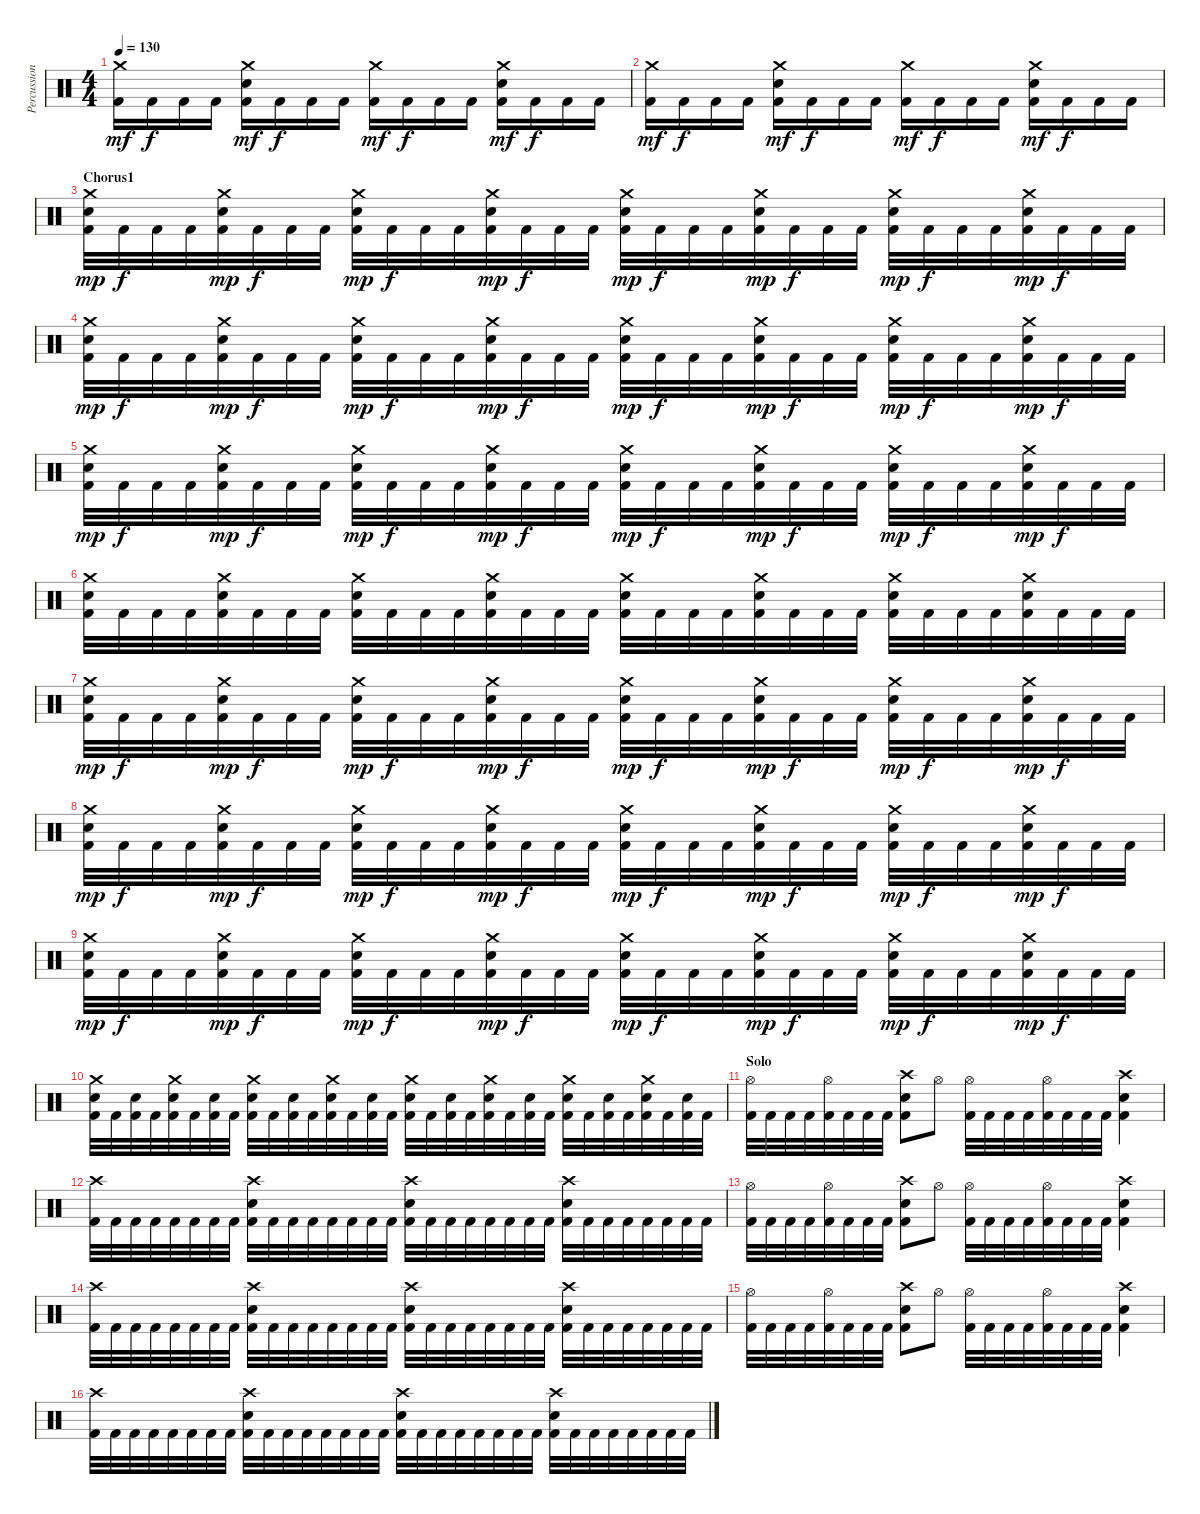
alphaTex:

\track ("Percussion" "Percussion") {instrument percussion}
\staff {score}
\articulation defaults
\ts (4 4)
\tempo 130
\clef neutral
\ks c
("Crash medium (hit)" "Kick (hit) 2").16{dy mf} "Kick (hit) 2".16{dy f} "Kick (hit) 2".16 "Kick (hit) 2".16 ("Crash medium (hit)" "Electric Snare (hit)" "Kick (hit) 2").16{dy mf} "Kick (hit) 2".16{dy f} "Kick (hit) 2".16 "Kick (hit) 2".16 ("Crash medium (hit)" "Kick (hit) 2").16{dy mf} "Kick (hit) 2".16{dy f} "Kick (hit) 2".16 "Kick (hit) 2".16 ("Crash medium (hit)" "Electric Snare (hit)" "Kick (hit) 2").16{dy mf} "Kick (hit) 2".16{dy f} "Kick (hit) 2".16 "Kick (hit) 2".16 |
("Crash medium (hit)" "Kick (hit) 2").16{dy mf} "Kick (hit) 2".16{dy f} "Kick (hit) 2".16 "Kick (hit) 2".16 ("Crash medium (hit)" "Electric Snare (hit)" "Kick (hit) 2").16{dy mf} "Kick (hit) 2".16{dy f} "Kick (hit) 2".16 "Kick (hit) 2".16 ("Crash medium (hit)" "Kick (hit) 2").16{dy mf} "Kick (hit) 2".16{dy f} "Kick (hit) 2".16 "Kick (hit) 2".16 ("Crash medium (hit)" "Electric Snare (hit)" "Kick (hit) 2").16{dy mf} "Kick (hit) 2".16{dy f} "Kick (hit) 2".16 "Kick (hit) 2".16 |
\section ("" "Chorus1")
("Crash medium (hit)" "Electric Snare (hit)" "Kick (hit) 2").32{dy mp} "Kick (hit) 2".32{dy f} "Kick (hit) 2".32 "Kick (hit) 2".32 ("Crash medium (hit)" "Electric Snare (hit)" "Kick (hit) 2").32{dy mp} "Kick (hit) 2".32{dy f} "Kick (hit) 2".32 "Kick (hit) 2".32 ("Crash medium (hit)" "Electric Snare (hit)" "Kick (hit) 2").32{dy mp} "Kick (hit) 2".32{dy f} "Kick (hit) 2".32 "Kick (hit) 2".32 ("Crash medium (hit)" "Electric Snare (hit)" "Kick (hit) 2").32{dy mp} "Kick (hit) 2".32{dy f} "Kick (hit) 2".32 "Kick (hit) 2".32 ("Crash medium (hit)" "Electric Snare (hit)" "Kick (hit) 2").32{dy mp} "Kick (hit) 2".32{dy f} "Kick (hit) 2".32 "Kick (hit) 2".32 ("Crash medium (hit)" "Electric Snare (hit)" "Kick (hit) 2").32{dy mp} "Kick (hit) 2".32{dy f} "Kick (hit) 2".32 "Kick (hit) 2".32 ("Crash medium (hit)" "Electric Snare (hit)" "Kick (hit) 2").32{dy mp} "Kick (hit) 2".32{dy f} "Kick (hit) 2".32 "Kick (hit) 2".32 ("Crash medium (hit)" "Electric Snare (hit)" "Kick (hit) 2").32{dy mp} "Kick (hit) 2".32{dy f} "Kick (hit) 2".32 "Kick (hit) 2".32 |
("Crash medium (hit)" "Electric Snare (hit)" "Kick (hit) 2").32{dy mp} "Kick (hit) 2".32{dy f} "Kick (hit) 2".32 "Kick (hit) 2".32 ("Crash medium (hit)" "Electric Snare (hit)" "Kick (hit) 2").32{dy mp} "Kick (hit) 2".32{dy f} "Kick (hit) 2".32 "Kick (hit) 2".32 ("Crash medium (hit)" "Electric Snare (hit)" "Kick (hit) 2").32{dy mp} "Kick (hit) 2".32{dy f} "Kick (hit) 2".32 "Kick (hit) 2".32 ("Crash medium (hit)" "Electric Snare (hit)" "Kick (hit) 2").32{dy mp} "Kick (hit) 2".32{dy f} "Kick (hit) 2".32 "Kick (hit) 2".32 ("Crash medium (hit)" "Electric Snare (hit)" "Kick (hit) 2").32{dy mp} "Kick (hit) 2".32{dy f} "Kick (hit) 2".32 "Kick (hit) 2".32 ("Crash medium (hit)" "Electric Snare (hit)" "Kick (hit) 2").32{dy mp} "Kick (hit) 2".32{dy f} "Kick (hit) 2".32 "Kick (hit) 2".32 ("Crash medium (hit)" "Electric Snare (hit)" "Kick (hit) 2").32{dy mp} "Kick (hit) 2".32{dy f} "Kick (hit) 2".32 "Kick (hit) 2".32 ("Crash medium (hit)" "Electric Snare (hit)" "Kick (hit) 2").32{dy mp} "Kick (hit) 2".32{dy f} "Kick (hit) 2".32 "Kick (hit) 2".32 |
("Crash medium (hit)" "Electric Snare (hit)" "Kick (hit) 2").32{dy mp} "Kick (hit) 2".32{dy f} "Kick (hit) 2".32 "Kick (hit) 2".32 ("Crash medium (hit)" "Electric Snare (hit)" "Kick (hit) 2").32{dy mp} "Kick (hit) 2".32{dy f} "Kick (hit) 2".32 "Kick (hit) 2".32 ("Crash medium (hit)" "Electric Snare (hit)" "Kick (hit) 2").32{dy mp} "Kick (hit) 2".32{dy f} "Kick (hit) 2".32 "Kick (hit) 2".32 ("Crash medium (hit)" "Electric Snare (hit)" "Kick (hit) 2").32{dy mp} "Kick (hit) 2".32{dy f} "Kick (hit) 2".32 "Kick (hit) 2".32 ("Crash medium (hit)" "Electric Snare (hit)" "Kick (hit) 2").32{dy mp} "Kick (hit) 2".32{dy f} "Kick (hit) 2".32 "Kick (hit) 2".32 ("Crash medium (hit)" "Electric Snare (hit)" "Kick (hit) 2").32{dy mp} "Kick (hit) 2".32{dy f} "Kick (hit) 2".32 "Kick (hit) 2".32 ("Crash medium (hit)" "Electric Snare (hit)" "Kick (hit) 2").32{dy mp} "Kick (hit) 2".32{dy f} "Kick (hit) 2".32 "Kick (hit) 2".32 ("Crash medium (hit)" "Electric Snare (hit)" "Kick (hit) 2").32{dy mp} "Kick (hit) 2".32{dy f} "Kick (hit) 2".32 "Kick (hit) 2".32 |
("Crash medium (hit)" "Electric Snare (hit)" "Kick (hit) 2").32 "Kick (hit) 2".32 "Kick (hit) 2".32 "Kick (hit) 2".32 ("Crash medium (hit)" "Electric Snare (hit)" "Kick (hit) 2").32 "Kick (hit) 2".32 "Kick (hit) 2".32 "Kick (hit) 2".32 ("Crash medium (hit)" "Electric Snare (hit)" "Kick (hit) 2").32 "Kick (hit) 2".32 "Kick (hit) 2".32 "Kick (hit) 2".32 ("Crash medium (hit)" "Electric Snare (hit)" "Kick (hit) 2").32 "Kick (hit) 2".32 "Kick (hit) 2".32 "Kick (hit) 2".32 ("Crash medium (hit)" "Electric Snare (hit)" "Kick (hit) 2").32 "Kick (hit) 2".32 "Kick (hit) 2".32 "Kick (hit) 2".32 ("Crash medium (hit)" "Electric Snare (hit)" "Kick (hit) 2").32 "Kick (hit) 2".32 "Kick (hit) 2".32 "Kick (hit) 2".32 ("Crash medium (hit)" "Electric Snare (hit)" "Kick (hit) 2").32 "Kick (hit) 2".32 "Kick (hit) 2".32 "Kick (hit) 2".32 ("Crash medium (hit)" "Electric Snare (hit)" "Kick (hit) 2").32 "Kick (hit) 2".32 "Kick (hit) 2".32 "Kick (hit) 2".32 |
("Crash medium (hit)" "Electric Snare (hit)" "Kick (hit) 2").32{dy mp} "Kick (hit) 2".32{dy f} "Kick (hit) 2".32 "Kick (hit) 2".32 ("Crash medium (hit)" "Electric Snare (hit)" "Kick (hit) 2").32{dy mp} "Kick (hit) 2".32{dy f} "Kick (hit) 2".32 "Kick (hit) 2".32 ("Crash medium (hit)" "Electric Snare (hit)" "Kick (hit) 2").32{dy mp} "Kick (hit) 2".32{dy f} "Kick (hit) 2".32 "Kick (hit) 2".32 ("Crash medium (hit)" "Electric Snare (hit)" "Kick (hit) 2").32{dy mp} "Kick (hit) 2".32{dy f} "Kick (hit) 2".32 "Kick (hit) 2".32 ("Crash medium (hit)" "Electric Snare (hit)" "Kick (hit) 2").32{dy mp} "Kick (hit) 2".32{dy f} "Kick (hit) 2".32 "Kick (hit) 2".32 ("Crash medium (hit)" "Electric Snare (hit)" "Kick (hit) 2").32{dy mp} "Kick (hit) 2".32{dy f} "Kick (hit) 2".32 "Kick (hit) 2".32 ("Crash medium (hit)" "Electric Snare (hit)" "Kick (hit) 2").32{dy mp} "Kick (hit) 2".32{dy f} "Kick (hit) 2".32 "Kick (hit) 2".32 ("Crash medium (hit)" "Electric Snare (hit)" "Kick (hit) 2").32{dy mp} "Kick (hit) 2".32{dy f} "Kick (hit) 2".32 "Kick (hit) 2".32 |
("Crash medium (hit)" "Electric Snare (hit)" "Kick (hit) 2").32{dy mp} "Kick (hit) 2".32{dy f} "Kick (hit) 2".32 "Kick (hit) 2".32 ("Crash medium (hit)" "Electric Snare (hit)" "Kick (hit) 2").32{dy mp} "Kick (hit) 2".32{dy f} "Kick (hit) 2".32 "Kick (hit) 2".32 ("Crash medium (hit)" "Electric Snare (hit)" "Kick (hit) 2").32{dy mp} "Kick (hit) 2".32{dy f} "Kick (hit) 2".32 "Kick (hit) 2".32 ("Crash medium (hit)" "Electric Snare (hit)" "Kick (hit) 2").32{dy mp} "Kick (hit) 2".32{dy f} "Kick (hit) 2".32 "Kick (hit) 2".32 ("Crash medium (hit)" "Electric Snare (hit)" "Kick (hit) 2").32{dy mp} "Kick (hit) 2".32{dy f} "Kick (hit) 2".32 "Kick (hit) 2".32 ("Crash medium (hit)" "Electric Snare (hit)" "Kick (hit) 2").32{dy mp} "Kick (hit) 2".32{dy f} "Kick (hit) 2".32 "Kick (hit) 2".32 ("Crash medium (hit)" "Electric Snare (hit)" "Kick (hit) 2").32{dy mp} "Kick (hit) 2".32{dy f} "Kick (hit) 2".32 "Kick (hit) 2".32 ("Crash medium (hit)" "Electric Snare (hit)" "Kick (hit) 2").32{dy mp} "Kick (hit) 2".32{dy f} "Kick (hit) 2".32 "Kick (hit) 2".32 |
("Crash medium (hit)" "Electric Snare (hit)" "Kick (hit) 2").32{dy mp} "Kick (hit) 2".32{dy f} "Kick (hit) 2".32 "Kick (hit) 2".32 ("Crash medium (hit)" "Electric Snare (hit)" "Kick (hit) 2").32{dy mp} "Kick (hit) 2".32{dy f} "Kick (hit) 2".32 "Kick (hit) 2".32 ("Crash medium (hit)" "Electric Snare (hit)" "Kick (hit) 2").32{dy mp} "Kick (hit) 2".32{dy f} "Kick (hit) 2".32 "Kick (hit) 2".32 ("Crash medium (hit)" "Electric Snare (hit)" "Kick (hit) 2").32{dy mp} "Kick (hit) 2".32{dy f} "Kick (hit) 2".32 "Kick (hit) 2".32 ("Crash medium (hit)" "Electric Snare (hit)" "Kick (hit) 2").32{dy mp} "Kick (hit) 2".32{dy f} "Kick (hit) 2".32 "Kick (hit) 2".32 ("Crash medium (hit)" "Electric Snare (hit)" "Kick (hit) 2").32{dy mp} "Kick (hit) 2".32{dy f} "Kick (hit) 2".32 "Kick (hit) 2".32 ("Crash medium (hit)" "Electric Snare (hit)" "Kick (hit) 2").32{dy mp} "Kick (hit) 2".32{dy f} "Kick (hit) 2".32 "Kick (hit) 2".32 ("Crash medium (hit)" "Electric Snare (hit)" "Kick (hit) 2").32{dy mp} "Kick (hit) 2".32{dy f} "Kick (hit) 2".32 "Kick (hit) 2".32 |
("Crash medium (hit)" "Electric Snare (hit)" "Kick (hit) 2").32 "Kick (hit) 2".32 ("Electric Snare (hit)" "Kick (hit) 2").32 "Kick (hit) 2".32 ("Crash medium (hit)" "Electric Snare (hit)" "Kick (hit) 2").32 "Kick (hit) 2".32 ("Electric Snare (hit)" "Kick (hit) 2").32 "Kick (hit) 2".32 ("Crash medium (hit)" "Electric Snare (hit)" "Kick (hit) 2").32 "Kick (hit) 2".32 ("Electric Snare (hit)" "Kick (hit) 2").32 "Kick (hit) 2".32 ("Crash medium (hit)" "Electric Snare (hit)" "Kick (hit) 2").32 "Kick (hit) 2".32 ("Electric Snare (hit)" "Kick (hit) 2").32 "Kick (hit) 2".32 ("Crash medium (hit)" "Electric Snare (hit)" "Kick (hit) 2").32 "Kick (hit) 2".32 ("Electric Snare (hit)" "Kick (hit) 2").32 "Kick (hit) 2".32 ("Crash medium (hit)" "Electric Snare (hit)" "Kick (hit) 2").32 "Kick (hit) 2".32 ("Electric Snare (hit)" "Kick (hit) 2").32 "Kick (hit) 2".32 ("Crash medium (hit)" "Electric Snare (hit)" "Kick (hit) 2").32 "Kick (hit) 2".32 ("Electric Snare (hit)" "Kick (hit) 2").32 "Kick (hit) 2".32 ("Crash medium (hit)" "Electric Snare (hit)" "Kick (hit) 2").32 "Kick (hit) 2".32 ("Electric Snare (hit)" "Kick (hit) 2").32 "Kick (hit) 2".32 |
\section ("" "Solo")
("Hi-Hat (open)" "Kick (hit) 2").32 "Kick (hit) 2".32 "Kick (hit) 2".32 "Kick (hit) 2".32 ("Hi-Hat (open)" "Kick (hit) 2").32 "Kick (hit) 2".32 "Kick (hit) 2".32 "Kick (hit) 2".32 ("Crash high (hit)" "Electric Snare (hit)" "Kick (hit) 2").8 "Hi-Hat (open)".8 ("Hi-Hat (open)" "Kick (hit) 2").32 "Kick (hit) 2".32 "Kick (hit) 2".32 "Kick (hit) 2".32 ("Hi-Hat (open)" "Kick (hit) 2").32 "Kick (hit) 2".32 "Kick (hit) 2".32 "Kick (hit) 2".32 ("Crash high (hit)" "Electric Snare (hit)" "Kick (hit) 2").4 |
("Crash high (hit)" "Kick (hit) 2").32 "Kick (hit) 2".32 "Kick (hit) 2".32 "Kick (hit) 2".32 "Kick (hit) 2".32 "Kick (hit) 2".32 "Kick (hit) 2".32 "Kick (hit) 2".32 ("Crash high (hit)" "Electric Snare (hit)" "Kick (hit) 2").32 "Kick (hit) 2".32 "Kick (hit) 2".32 "Kick (hit) 2".32 "Kick (hit) 2".32 "Kick (hit) 2".32 "Kick (hit) 2".32 "Kick (hit) 2".32 ("Crash high (hit)" "Electric Snare (hit)" "Kick (hit) 2").32 "Kick (hit) 2".32 "Kick (hit) 2".32 "Kick (hit) 2".32 "Kick (hit) 2".32 "Kick (hit) 2".32 "Kick (hit) 2".32 "Kick (hit) 2".32 ("Crash high (hit)" "Electric Snare (hit)" "Kick (hit) 2").32 "Kick (hit) 2".32 "Kick (hit) 2".32 "Kick (hit) 2".32 "Kick (hit) 2".32 "Kick (hit) 2".32 "Kick (hit) 2".32 "Kick (hit) 2".32 |
("Hi-Hat (open)" "Kick (hit) 2").32 "Kick (hit) 2".32 "Kick (hit) 2".32 "Kick (hit) 2".32 ("Hi-Hat (open)" "Kick (hit) 2").32 "Kick (hit) 2".32 "Kick (hit) 2".32 "Kick (hit) 2".32 ("Crash high (hit)" "Electric Snare (hit)" "Kick (hit) 2").8 "Hi-Hat (open)".8 ("Hi-Hat (open)" "Kick (hit) 2").32 "Kick (hit) 2".32 "Kick (hit) 2".32 "Kick (hit) 2".32 ("Hi-Hat (open)" "Kick (hit) 2").32 "Kick (hit) 2".32 "Kick (hit) 2".32 "Kick (hit) 2".32 ("Crash high (hit)" "Electric Snare (hit)" "Kick (hit) 2").4 |
("Crash high (hit)" "Kick (hit) 2").32 "Kick (hit) 2".32 "Kick (hit) 2".32 "Kick (hit) 2".32 "Kick (hit) 2".32 "Kick (hit) 2".32 "Kick (hit) 2".32 "Kick (hit) 2".32 ("Crash high (hit)" "Electric Snare (hit)" "Kick (hit) 2").32 "Kick (hit) 2".32 "Kick (hit) 2".32 "Kick (hit) 2".32 "Kick (hit) 2".32 "Kick (hit) 2".32 "Kick (hit) 2".32 "Kick (hit) 2".32 ("Crash high (hit)" "Electric Snare (hit)" "Kick (hit) 2").32 "Kick (hit) 2".32 "Kick (hit) 2".32 "Kick (hit) 2".32 "Kick (hit) 2".32 "Kick (hit) 2".32 "Kick (hit) 2".32 "Kick (hit) 2".32 ("Crash high (hit)" "Electric Snare (hit)" "Kick (hit) 2").32 "Kick (hit) 2".32 "Kick (hit) 2".32 "Kick (hit) 2".32 "Kick (hit) 2".32 "Kick (hit) 2".32 "Kick (hit) 2".32 "Kick (hit) 2".32 |
("Hi-Hat (open)" "Kick (hit) 2").32 "Kick (hit) 2".32 "Kick (hit) 2".32 "Kick (hit) 2".32 ("Hi-Hat (open)" "Kick (hit) 2").32 "Kick (hit) 2".32 "Kick (hit) 2".32 "Kick (hit) 2".32 ("Crash high (hit)" "Electric Snare (hit)" "Kick (hit) 2").8 "Hi-Hat (open)".8 ("Hi-Hat (open)" "Kick (hit) 2").32 "Kick (hit) 2".32 "Kick (hit) 2".32 "Kick (hit) 2".32 ("Hi-Hat (open)" "Kick (hit) 2").32 "Kick (hit) 2".32 "Kick (hit) 2".32 "Kick (hit) 2".32 ("Crash high (hit)" "Electric Snare (hit)" "Kick (hit) 2").4 |
("Crash high (hit)" "Kick (hit) 2").32 "Kick (hit) 2".32 "Kick (hit) 2".32 "Kick (hit) 2".32 "Kick (hit) 2".32 "Kick (hit) 2".32 "Kick (hit) 2".32 "Kick (hit) 2".32 ("Crash high (hit)" "Electric Snare (hit)" "Kick (hit) 2").32 "Kick (hit) 2".32 "Kick (hit) 2".32 "Kick (hit) 2".32 "Kick (hit) 2".32 "Kick (hit) 2".32 "Kick (hit) 2".32 "Kick (hit) 2".32 ("Crash high (hit)" "Electric Snare (hit)" "Kick (hit) 2").32 "Kick (hit) 2".32 "Kick (hit) 2".32 "Kick (hit) 2".32 "Kick (hit) 2".32 "Kick (hit) 2".32 "Kick (hit) 2".32 "Kick (hit) 2".32 ("Crash high (hit)" "Electric Snare (hit)" "Kick (hit) 2").32 "Kick (hit) 2".32 "Kick (hit) 2".32 "Kick (hit) 2".32 "Kick (hit) 2".32 "Kick (hit) 2".32 "Kick (hit) 2".32 "Kick (hit) 2".32
